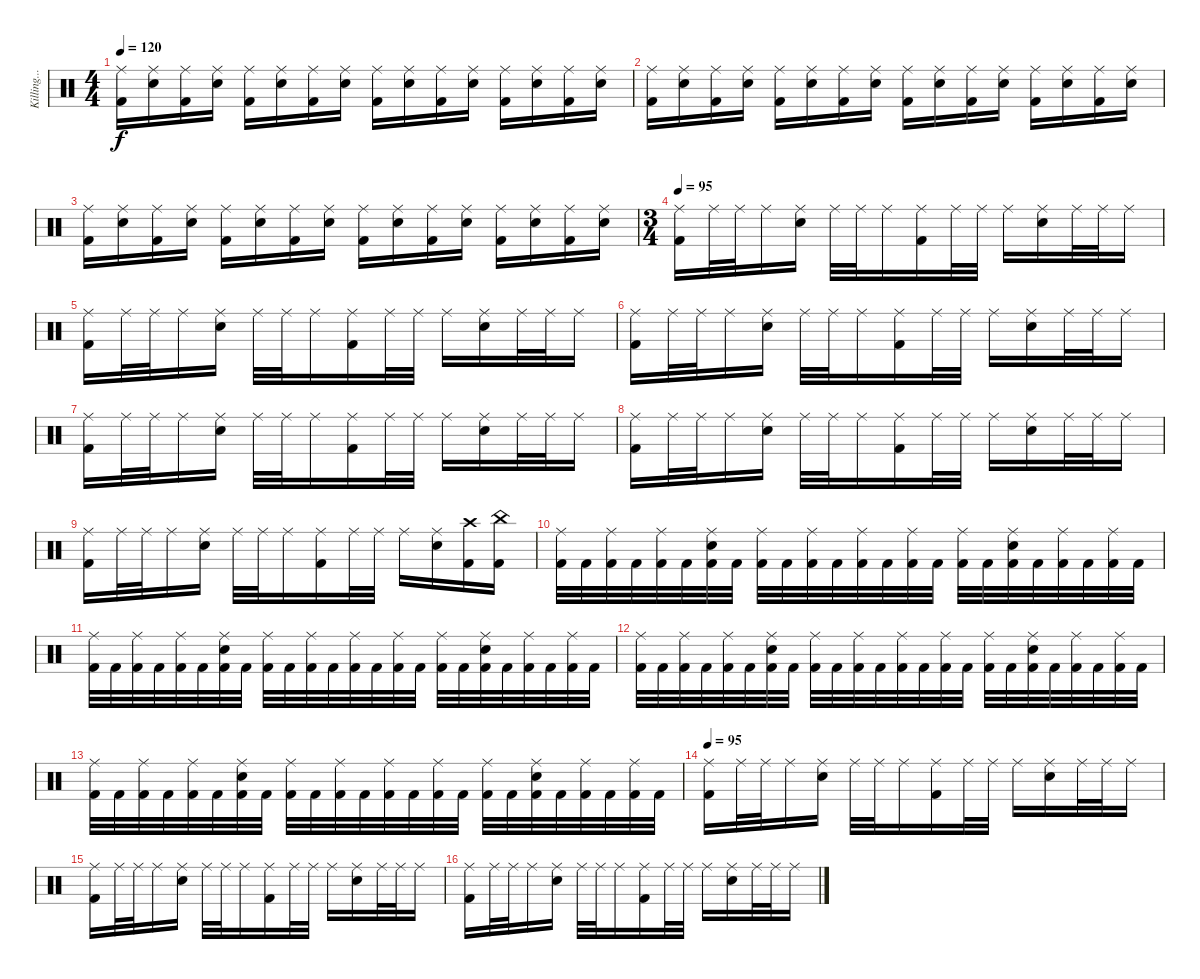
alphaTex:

\track ("Killing.....Is His Business" "Killing...") {instrument percussion}
\staff {score}
\articulation defaults
\ts (4 4)
\tempo 120
\clef neutral
\ks c
("Ride (middle)" "Kick (hit) 2").16{dy f} ("Ride (middle)" "Snare (hit) 2").16 ("Ride (middle)" "Kick (hit) 2").16 ("Ride (middle)" "Snare (hit) 2").16 ("Ride (middle)" "Kick (hit) 2").16 ("Ride (middle)" "Snare (hit) 2").16 ("Ride (middle)" "Kick (hit) 2").16 ("Ride (middle)" "Snare (hit) 2").16 ("Ride (middle)" "Kick (hit) 2").16 ("Ride (middle)" "Snare (hit) 2").16 ("Ride (middle)" "Kick (hit) 2").16 ("Ride (middle)" "Snare (hit) 2").16 ("Ride (middle)" "Kick (hit) 2").16 ("Ride (middle)" "Snare (hit) 2").16 ("Ride (middle)" "Kick (hit) 2").16 ("Ride (middle)" "Snare (hit) 2").16 |
("Ride (middle)" "Kick (hit) 2").16 ("Ride (middle)" "Snare (hit) 2").16 ("Ride (middle)" "Kick (hit) 2").16 ("Ride (middle)" "Snare (hit) 2").16 ("Ride (middle)" "Kick (hit) 2").16 ("Ride (middle)" "Snare (hit) 2").16 ("Ride (middle)" "Kick (hit) 2").16 ("Ride (middle)" "Snare (hit) 2").16 ("Ride (middle)" "Kick (hit) 2").16 ("Ride (middle)" "Snare (hit) 2").16 ("Ride (middle)" "Kick (hit) 2").16 ("Ride (middle)" "Snare (hit) 2").16 ("Ride (middle)" "Kick (hit) 2").16 ("Ride (middle)" "Snare (hit) 2").16 ("Ride (middle)" "Kick (hit) 2").16 ("Ride (middle)" "Snare (hit) 2").16 |
("Ride (middle)" "Kick (hit) 2").16 ("Ride (middle)" "Snare (hit) 2").16 ("Ride (middle)" "Kick (hit) 2").16 ("Ride (middle)" "Snare (hit) 2").16 ("Ride (middle)" "Kick (hit) 2").16 ("Ride (middle)" "Snare (hit) 2").16 ("Ride (middle)" "Kick (hit) 2").16 ("Ride (middle)" "Snare (hit) 2").16 ("Ride (middle)" "Kick (hit) 2").16 ("Ride (middle)" "Snare (hit) 2").16 ("Ride (middle)" "Kick (hit) 2").16 ("Ride (middle)" "Snare (hit) 2").16 ("Ride (middle)" "Kick (hit) 2").16 ("Ride (middle)" "Snare (hit) 2").16 ("Ride (middle)" "Kick (hit) 2").16 ("Ride (middle)" "Snare (hit) 2").16 |
\ts (3 4)
\tempo 95
("Ride (middle)" "Kick (hit) 2").16 "Ride (middle)".32 "Ride (middle)".32 "Ride (middle)".16 ("Ride (middle)" "Snare (hit) 2").16 "Ride (middle)".32 "Ride (middle)".32 "Ride (middle)".16 ("Ride (middle)" "Kick (hit) 2").16 "Ride (middle)".32 "Ride (middle)".32 "Ride (middle)".16 ("Ride (middle)" "Snare (hit) 2").16 "Ride (middle)".32 "Ride (middle)".32 "Ride (middle)".16 |
("Ride (middle)" "Kick (hit) 2").16 "Ride (middle)".32 "Ride (middle)".32 "Ride (middle)".16 ("Ride (middle)" "Snare (hit) 2").16 "Ride (middle)".32 "Ride (middle)".32 "Ride (middle)".16 ("Ride (middle)" "Kick (hit) 2").16 "Ride (middle)".32 "Ride (middle)".32 "Ride (middle)".16 ("Ride (middle)" "Snare (hit) 2").16 "Ride (middle)".32 "Ride (middle)".32 "Ride (middle)".16 |
("Ride (middle)" "Kick (hit) 2").16 "Ride (middle)".32 "Ride (middle)".32 "Ride (middle)".16 ("Ride (middle)" "Snare (hit) 2").16 "Ride (middle)".32 "Ride (middle)".32 "Ride (middle)".16 ("Ride (middle)" "Kick (hit) 2").16 "Ride (middle)".32 "Ride (middle)".32 "Ride (middle)".16 ("Ride (middle)" "Snare (hit) 2").16 "Ride (middle)".32 "Ride (middle)".32 "Ride (middle)".16 |
("Ride (middle)" "Kick (hit) 2").16 "Ride (middle)".32 "Ride (middle)".32 "Ride (middle)".16 ("Ride (middle)" "Snare (hit) 2").16 "Ride (middle)".32 "Ride (middle)".32 "Ride (middle)".16 ("Ride (middle)" "Kick (hit) 2").16 "Ride (middle)".32 "Ride (middle)".32 "Ride (middle)".16 ("Ride (middle)" "Snare (hit) 2").16 "Ride (middle)".32 "Ride (middle)".32 "Ride (middle)".16 |
("Ride (middle)" "Kick (hit) 2").16 "Ride (middle)".32 "Ride (middle)".32 "Ride (middle)".16 ("Ride (middle)" "Snare (hit) 2").16 "Ride (middle)".32 "Ride (middle)".32 "Ride (middle)".16 ("Ride (middle)" "Kick (hit) 2").16 "Ride (middle)".32 "Ride (middle)".32 "Ride (middle)".16 ("Ride (middle)" "Snare (hit) 2").16 "Ride (middle)".32 "Ride (middle)".32 "Ride (middle)".16 |
("Ride (middle)" "Kick (hit) 2").16 "Ride (middle)".32 "Ride (middle)".32 "Ride (middle)".16 ("Ride (middle)" "Snare (hit) 2").16 "Ride (middle)".32 "Ride (middle)".32 "Ride (middle)".16 ("Ride (middle)" "Kick (hit) 2").16 "Ride (middle)".32 "Ride (middle)".32 "Ride (middle)".16 ("Ride (middle)" "Snare (hit) 2").16 ("Crash high (hit)" "Kick (hit) 2").16 ("China (hit)" "Kick (hit) 2").16 |
("Ride (middle)" "Kick (hit) 2").32 "Kick (hit) 2".32 ("Ride (middle)" "Kick (hit) 2").32 "Kick (hit) 2".32 ("Ride (middle)" "Kick (hit) 2").32 "Kick (hit) 2".32 ("Ride (middle)" "Snare (hit) 2" "Kick (hit) 2").32 "Kick (hit) 2".32 ("Ride (middle)" "Kick (hit) 2").32 "Kick (hit) 2".32 ("Ride (middle)" "Kick (hit) 2").32 "Kick (hit) 2".32 ("Ride (middle)" "Kick (hit) 2").32 "Kick (hit) 2".32 ("Ride (middle)" "Kick (hit) 2").32 "Kick (hit) 2".32 ("Ride (middle)" "Kick (hit) 2").32 "Kick (hit) 2".32 ("Ride (middle)" "Snare (hit) 2" "Kick (hit) 2").32 "Kick (hit) 2".32 ("Ride (middle)" "Kick (hit) 2").32 "Kick (hit) 2".32 ("Ride (middle)" "Kick (hit) 2").32 "Kick (hit) 2".32 |
("Ride (middle)" "Kick (hit) 2").32 "Kick (hit) 2".32 ("Ride (middle)" "Kick (hit) 2").32 "Kick (hit) 2".32 ("Ride (middle)" "Kick (hit) 2").32 "Kick (hit) 2".32 ("Ride (middle)" "Snare (hit) 2" "Kick (hit) 2").32 "Kick (hit) 2".32 ("Ride (middle)" "Kick (hit) 2").32 "Kick (hit) 2".32 ("Ride (middle)" "Kick (hit) 2").32 "Kick (hit) 2".32 ("Ride (middle)" "Kick (hit) 2").32 "Kick (hit) 2".32 ("Ride (middle)" "Kick (hit) 2").32 "Kick (hit) 2".32 ("Ride (middle)" "Kick (hit) 2").32 "Kick (hit) 2".32 ("Ride (middle)" "Snare (hit) 2" "Kick (hit) 2").32 "Kick (hit) 2".32 ("Ride (middle)" "Kick (hit) 2").32 "Kick (hit) 2".32 ("Ride (middle)" "Kick (hit) 2").32 "Kick (hit) 2".32 |
("Ride (middle)" "Kick (hit) 2").32 "Kick (hit) 2".32 ("Ride (middle)" "Kick (hit) 2").32 "Kick (hit) 2".32 ("Ride (middle)" "Kick (hit) 2").32 "Kick (hit) 2".32 ("Ride (middle)" "Snare (hit) 2" "Kick (hit) 2").32 "Kick (hit) 2".32 ("Ride (middle)" "Kick (hit) 2").32 "Kick (hit) 2".32 ("Ride (middle)" "Kick (hit) 2").32 "Kick (hit) 2".32 ("Ride (middle)" "Kick (hit) 2").32 "Kick (hit) 2".32 ("Ride (middle)" "Kick (hit) 2").32 "Kick (hit) 2".32 ("Ride (middle)" "Kick (hit) 2").32 "Kick (hit) 2".32 ("Ride (middle)" "Snare (hit) 2" "Kick (hit) 2").32 "Kick (hit) 2".32 ("Ride (middle)" "Kick (hit) 2").32 "Kick (hit) 2".32 ("Ride (middle)" "Kick (hit) 2").32 "Kick (hit) 2".32 |
("Ride (middle)" "Kick (hit) 2").32 "Kick (hit) 2".32 ("Ride (middle)" "Kick (hit) 2").32 "Kick (hit) 2".32 ("Ride (middle)" "Kick (hit) 2").32 "Kick (hit) 2".32 ("Ride (middle)" "Snare (hit) 2" "Kick (hit) 2").32 "Kick (hit) 2".32 ("Ride (middle)" "Kick (hit) 2").32 "Kick (hit) 2".32 ("Ride (middle)" "Kick (hit) 2").32 "Kick (hit) 2".32 ("Ride (middle)" "Kick (hit) 2").32 "Kick (hit) 2".32 ("Ride (middle)" "Kick (hit) 2").32 "Kick (hit) 2".32 ("Ride (middle)" "Kick (hit) 2").32 "Kick (hit) 2".32 ("Ride (middle)" "Snare (hit) 2" "Kick (hit) 2").32 "Kick (hit) 2".32 ("Ride (middle)" "Kick (hit) 2").32 "Kick (hit) 2".32 ("Ride (middle)" "Kick (hit) 2").32 "Kick (hit) 2".32 |
\tempo 95
("Ride (middle)" "Kick (hit) 2").16 "Ride (middle)".32 "Ride (middle)".32 "Ride (middle)".16 ("Ride (middle)" "Snare (hit) 2").16 "Ride (middle)".32 "Ride (middle)".32 "Ride (middle)".16 ("Ride (middle)" "Kick (hit) 2").16 "Ride (middle)".32 "Ride (middle)".32 "Ride (middle)".16 ("Ride (middle)" "Snare (hit) 2").16 "Ride (middle)".32 "Ride (middle)".32 "Ride (middle)".16 |
("Ride (middle)" "Kick (hit) 2").16 "Ride (middle)".32 "Ride (middle)".32 "Ride (middle)".16 ("Ride (middle)" "Snare (hit) 2").16 "Ride (middle)".32 "Ride (middle)".32 "Ride (middle)".16 ("Ride (middle)" "Kick (hit) 2").16 "Ride (middle)".32 "Ride (middle)".32 "Ride (middle)".16 ("Ride (middle)" "Snare (hit) 2").16 "Ride (middle)".32 "Ride (middle)".32 "Ride (middle)".16 |
("Ride (middle)" "Kick (hit) 2").16 "Ride (middle)".32 "Ride (middle)".32 "Ride (middle)".16 ("Ride (middle)" "Snare (hit) 2").16 "Ride (middle)".32 "Ride (middle)".32 "Ride (middle)".16 ("Ride (middle)" "Kick (hit) 2").16 "Ride (middle)".32 "Ride (middle)".32 "Ride (middle)".16 ("Ride (middle)" "Snare (hit) 2").16 "Ride (middle)".32 "Ride (middle)".32 "Ride (middle)".16
